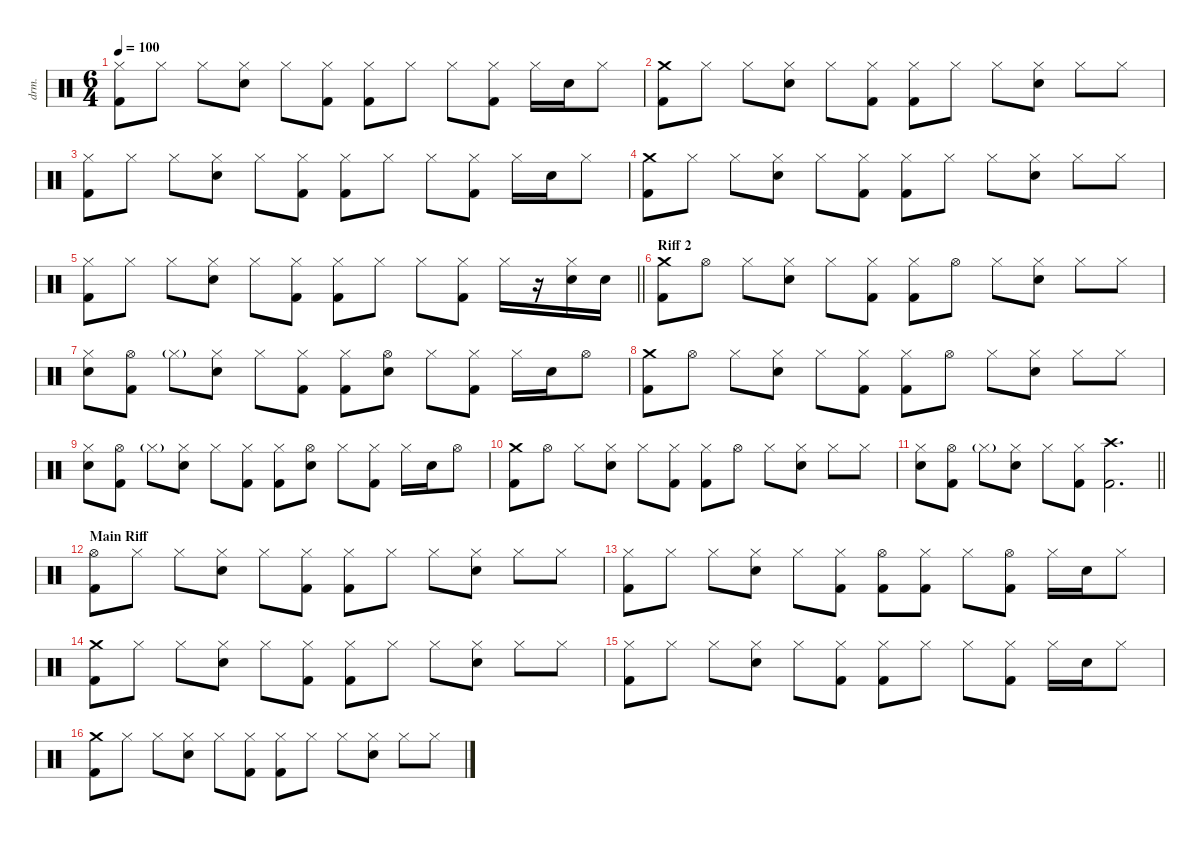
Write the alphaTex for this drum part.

\defaultSystemsLayout 4
\hideDynamics
\bracketExtendMode nobrackets
\otherSystemsTrackNameOrientation horizontal
\track ("Percussions" "drm.") {instrument percussion}
\staff {score}
\articulation defaults
\ts (6 4)
\tempo 100
\clef neutral
\ks c
("Hi-Hat (closed)" "Kick (hit) 2").8{dy f beam Down} "Hi-Hat (closed)".8{beam Down} "Hi-Hat (closed)".8{beam Down} ("Snare (hit) 2" "Hi-Hat (closed)").8{beam Down} "Hi-Hat (closed)".8{beam Down} ("Hi-Hat (closed)" "Kick (hit) 2").8{beam Down} ("Hi-Hat (closed)" "Kick (hit) 2").8{beam Down} "Hi-Hat (closed)".8{beam Down} "Hi-Hat (closed)".8{beam Down} ("Hi-Hat (closed)" "Kick (hit) 2").8{beam Down} "Hi-Hat (closed)".16{beam Down} "Snare (hit) 2".16{beam Down} "Hi-Hat (closed)".8{beam Down} |
("Crash medium (hit)" "Kick (hit) 2").8{beam Down} "Hi-Hat (closed)".8{beam Down} "Hi-Hat (closed)".8{beam Down} ("Snare (hit) 2" "Hi-Hat (closed)").8{beam Down} "Hi-Hat (closed)".8{beam Down} ("Hi-Hat (closed)" "Kick (hit) 2").8{beam Down} ("Hi-Hat (closed)" "Kick (hit) 2").8{beam Down} "Hi-Hat (closed)".8{beam Down} "Hi-Hat (closed)".8{beam Down} ("Snare (hit) 2" "Hi-Hat (closed)").8{beam Down} "Hi-Hat (closed)".8{beam Down} "Hi-Hat (closed)".8{beam Down} |
("Hi-Hat (closed)" "Kick (hit) 2").8{beam Down} "Hi-Hat (closed)".8{beam Down} "Hi-Hat (closed)".8{beam Down} ("Snare (hit) 2" "Hi-Hat (closed)").8{beam Down} "Hi-Hat (closed)".8{beam Down} ("Hi-Hat (closed)" "Kick (hit) 2").8{beam Down} ("Hi-Hat (closed)" "Kick (hit) 2").8{beam Down} "Hi-Hat (closed)".8{beam Down} "Hi-Hat (closed)".8{beam Down} ("Hi-Hat (closed)" "Kick (hit) 2").8{beam Down} "Hi-Hat (closed)".16{beam Down} "Snare (hit) 2".16{beam Down} "Hi-Hat (closed)".8{beam Down} |
("Crash medium (hit)" "Kick (hit) 2").8{beam Down} "Hi-Hat (closed)".8{beam Down} "Hi-Hat (closed)".8{beam Down} ("Snare (hit) 2" "Hi-Hat (closed)").8{beam Down} "Hi-Hat (closed)".8{beam Down} ("Hi-Hat (closed)" "Kick (hit) 2").8{beam Down} ("Hi-Hat (closed)" "Kick (hit) 2").8{beam Down} "Hi-Hat (closed)".8{beam Down} "Hi-Hat (closed)".8{beam Down} ("Snare (hit) 2" "Hi-Hat (closed)").8{beam Down} "Hi-Hat (closed)".8{beam Down} "Hi-Hat (closed)".8{beam Down} |
\barLineRight lightlight
("Hi-Hat (closed)" "Kick (hit) 2").8{beam Down} "Hi-Hat (closed)".8{beam Down} "Hi-Hat (closed)".8{beam Down} ("Snare (hit) 2" "Hi-Hat (closed)").8{beam Down} "Hi-Hat (closed)".8{beam Down} ("Hi-Hat (closed)" "Kick (hit) 2").8{beam Down} ("Hi-Hat (closed)" "Kick (hit) 2").8{beam Down} "Hi-Hat (closed)".8{beam Down} "Hi-Hat (closed)".8{beam Down} ("Hi-Hat (closed)" "Kick (hit) 2").8{beam Down} "Hi-Hat (closed)".16{beam Down} r.16{beam Down} ("Snare (hit) 2" "Hi-Hat (closed)").16{beam Down} "Snare (hit) 2".16{beam Down} |
\section ("" "Riff 2")
("Crash medium (hit)" "Kick (hit) 2").8{beam Down} "Hi-Hat (open)".8{beam Down} "Hi-Hat (closed)".8{beam Down} ("Snare (hit) 2" "Hi-Hat (closed)").8{beam Down} "Hi-Hat (closed)".8{beam Down} ("Hi-Hat (closed)" "Kick (hit) 2").8{beam Down} ("Hi-Hat (closed)" "Kick (hit) 2").8{beam Down} "Hi-Hat (open)".8{beam Down} "Hi-Hat (closed)".8{beam Down} ("Snare (hit) 2" "Hi-Hat (closed)").8{beam Down} "Hi-Hat (closed)".8{beam Down} "Hi-Hat (closed)".8{beam Down} |
("Snare (hit) 2" "Hi-Hat (closed)").8{beam Down} ("Kick (hit) 2" "Hi-Hat (open)").8{beam Down} "Hi-Hat (closed)"{g}.8{dy mf beam Down} ("Snare (hit) 2" "Hi-Hat (closed)").8{dy f beam Down} "Hi-Hat (closed)".8{beam Down} ("Kick (hit) 2" "Hi-Hat (closed)").8{beam Down} ("Kick (hit) 2" "Hi-Hat (closed)").8{beam Down} ("Snare (hit) 2" "Hi-Hat (open)").8{beam Down} "Hi-Hat (closed)".8{beam Down} ("Kick (hit) 2" "Hi-Hat (closed)").8{beam Down} "Hi-Hat (closed)".16{beam Down} "Snare (hit) 2".16{beam Down} "Hi-Hat (open)".8{beam Down} |
("Crash medium (hit)" "Kick (hit) 2").8{beam Down} "Hi-Hat (open)".8{beam Down} "Hi-Hat (closed)".8{beam Down} ("Snare (hit) 2" "Hi-Hat (closed)").8{beam Down} "Hi-Hat (closed)".8{beam Down} ("Hi-Hat (closed)" "Kick (hit) 2").8{beam Down} ("Hi-Hat (closed)" "Kick (hit) 2").8{beam Down} "Hi-Hat (open)".8{beam Down} "Hi-Hat (closed)".8{beam Down} ("Snare (hit) 2" "Hi-Hat (closed)").8{beam Down} "Hi-Hat (closed)".8{beam Down} "Hi-Hat (closed)".8{beam Down} |
("Snare (hit) 2" "Hi-Hat (closed)").8{beam Down} ("Kick (hit) 2" "Hi-Hat (open)").8{beam Down} "Hi-Hat (closed)"{g}.8{dy mf beam Down} ("Snare (hit) 2" "Hi-Hat (closed)").8{dy f beam Down} "Hi-Hat (closed)".8{beam Down} ("Kick (hit) 2" "Hi-Hat (closed)").8{beam Down} ("Kick (hit) 2" "Hi-Hat (closed)").8{beam Down} ("Snare (hit) 2" "Hi-Hat (open)").8{beam Down} "Hi-Hat (closed)".8{beam Down} ("Kick (hit) 2" "Hi-Hat (closed)").8{beam Down} "Hi-Hat (closed)".16{beam Down} "Snare (hit) 2".16{beam Down} "Hi-Hat (open)".8{beam Down} |
("Crash medium (hit)" "Kick (hit) 2").8{beam Down} "Hi-Hat (open)".8{beam Down} "Hi-Hat (closed)".8{beam Down} ("Snare (hit) 2" "Hi-Hat (closed)").8{beam Down} "Hi-Hat (closed)".8{beam Down} ("Hi-Hat (closed)" "Kick (hit) 2").8{beam Down} ("Hi-Hat (closed)" "Kick (hit) 2").8{beam Down} "Hi-Hat (open)".8{beam Down} "Hi-Hat (closed)".8{beam Down} ("Snare (hit) 2" "Hi-Hat (closed)").8{beam Down} "Hi-Hat (closed)".8{beam Down} "Hi-Hat (closed)".8{beam Down} |
\barLineRight lightlight
("Snare (hit) 2" "Hi-Hat (closed)").8{beam Down} ("Kick (hit) 2" "Hi-Hat (open)").8{beam Down} "Hi-Hat (closed)"{g}.8{dy mf beam Down} ("Snare (hit) 2" "Hi-Hat (closed)").8{dy f beam Down} "Hi-Hat (closed)".8{beam Down} ("Kick (hit) 2" "Hi-Hat (closed)").8{beam Down} ("Kick (hit) 2" "Crash high (hit)").2{d beam Down} |
\section ("" "Main Riff")
("Hi-Hat (open)" "Kick (hit) 2").8{beam Down} "Hi-Hat (closed)".8{beam Down} "Hi-Hat (closed)".8{beam Down} ("Snare (hit) 2" "Hi-Hat (closed)").8{beam Down} "Hi-Hat (closed)".8{beam Down} ("Hi-Hat (closed)" "Kick (hit) 2").8{beam Down} ("Hi-Hat (closed)" "Kick (hit) 2").8{beam Down} "Hi-Hat (closed)".8{beam Down} "Hi-Hat (closed)".8{beam Down} ("Snare (hit) 2" "Hi-Hat (closed)").8{beam Down} "Hi-Hat (closed)".8{beam Down} "Hi-Hat (closed)".8{beam Down} |
("Hi-Hat (closed)" "Kick (hit) 2").8{beam Down} "Hi-Hat (closed)".8{beam Down} "Hi-Hat (closed)".8{beam Down} ("Snare (hit) 2" "Hi-Hat (closed)").8{beam Down} "Hi-Hat (closed)".8{beam Down} ("Hi-Hat (closed)" "Kick (hit) 2").8{beam Down} ("Hi-Hat (open)" "Kick (hit) 2").8{beam Down} ("Hi-Hat (closed)" "Kick (hit) 2").8{beam Down} "Hi-Hat (closed)".8{beam Down} ("Hi-Hat (open)" "Kick (hit) 2").8{beam Down} "Hi-Hat (closed)".16{beam Down} "Snare (hit) 2".16{beam Down} "Hi-Hat (closed)".8{beam Down} |
("Crash medium (hit)" "Kick (hit) 2").8{beam Down} "Hi-Hat (closed)".8{beam Down} "Hi-Hat (closed)".8{beam Down} ("Snare (hit) 2" "Hi-Hat (closed)").8{beam Down} "Hi-Hat (closed)".8{beam Down} ("Hi-Hat (closed)" "Kick (hit) 2").8{beam Down} ("Hi-Hat (closed)" "Kick (hit) 2").8{beam Down} "Hi-Hat (closed)".8{beam Down} "Hi-Hat (closed)".8{beam Down} ("Snare (hit) 2" "Hi-Hat (closed)").8{beam Down} "Hi-Hat (closed)".8{beam Down} "Hi-Hat (closed)".8{beam Down} |
("Hi-Hat (closed)" "Kick (hit) 2").8{beam Down} "Hi-Hat (closed)".8{beam Down} "Hi-Hat (closed)".8{beam Down} ("Snare (hit) 2" "Hi-Hat (closed)").8{beam Down} "Hi-Hat (closed)".8{beam Down} ("Hi-Hat (closed)" "Kick (hit) 2").8{beam Down} ("Hi-Hat (closed)" "Kick (hit) 2").8{beam Down} "Hi-Hat (closed)".8{beam Down} "Hi-Hat (closed)".8{beam Down} ("Hi-Hat (closed)" "Kick (hit) 2").8{beam Down} "Hi-Hat (closed)".16{beam Down} "Snare (hit) 2".16{beam Down} "Hi-Hat (closed)".8{beam Down} |
("Crash medium (hit)" "Kick (hit) 2").8{beam Down} "Hi-Hat (closed)".8{beam Down} "Hi-Hat (closed)".8{beam Down} ("Snare (hit) 2" "Hi-Hat (closed)").8{beam Down} "Hi-Hat (closed)".8{beam Down} ("Hi-Hat (closed)" "Kick (hit) 2").8{beam Down} ("Hi-Hat (closed)" "Kick (hit) 2").8{beam Down} "Hi-Hat (closed)".8{beam Down} "Hi-Hat (closed)".8{beam Down} ("Snare (hit) 2" "Hi-Hat (closed)").8{beam Down} "Hi-Hat (closed)".8{beam Down} "Hi-Hat (closed)".8{beam Down}
